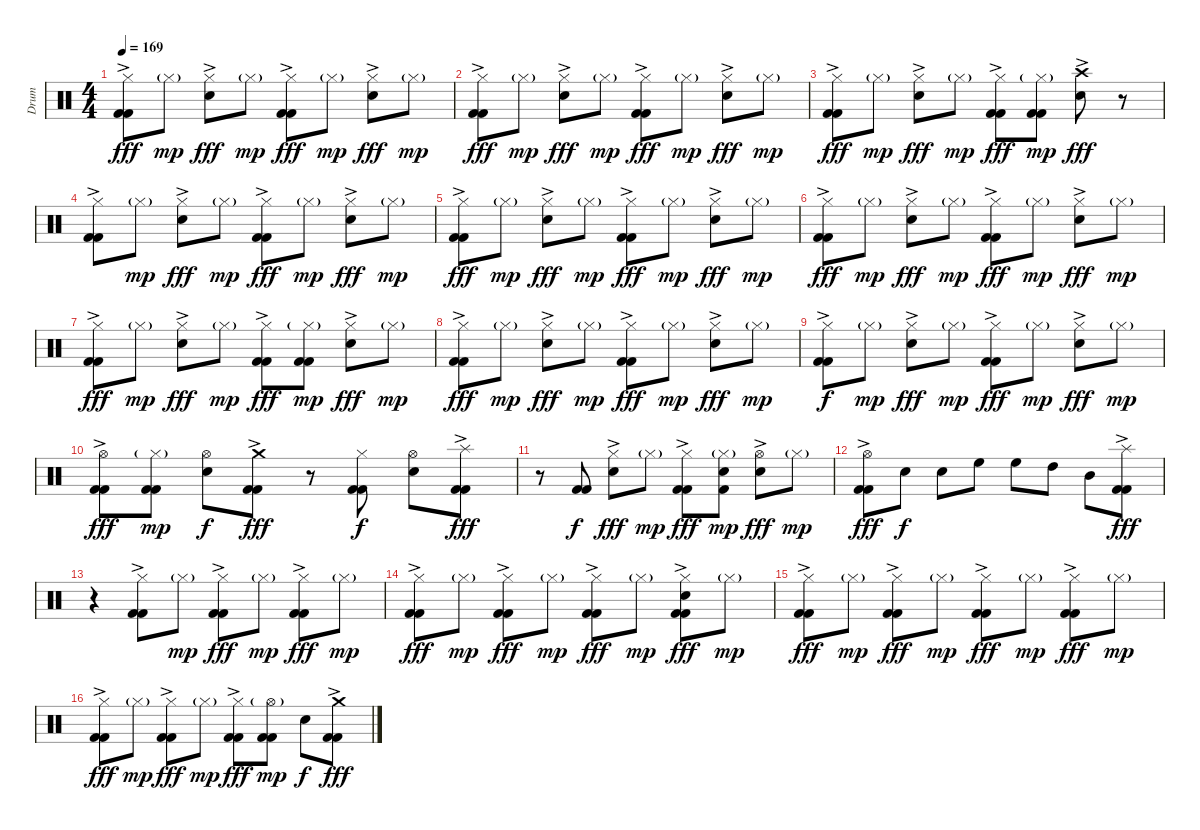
\track ("Drum" "Drum") {instrument percussion}
\staff {score}
\articulation defaults
\ts (4 4)
\tempo 169
\clef neutral
\ks c
("Hi-Hat (closed)"{ac} "Kick (hit) 2" "Kick (hit) 2").8{dy fff} "Hi-Hat (closed)"{g}.8{dy mp} ("Hi-Hat (closed)"{ac} "Electric Snare (hit)").8{dy fff} "Hi-Hat (closed)"{g}.8{dy mp} ("Hi-Hat (closed)"{ac} "Kick (hit) 2" "Kick (hit) 2").8{dy fff} "Hi-Hat (closed)"{g}.8{dy mp} ("Hi-Hat (closed)"{ac} "Electric Snare (hit)").8{dy fff} "Hi-Hat (closed)"{g}.8{dy mp} |
("Hi-Hat (closed)"{ac} "Kick (hit) 2" "Kick (hit) 2").8{dy fff} "Hi-Hat (closed)"{g}.8{dy mp} ("Hi-Hat (closed)"{ac} "Electric Snare (hit)").8{dy fff} "Hi-Hat (closed)"{g}.8{dy mp} ("Hi-Hat (closed)"{ac} "Kick (hit) 2" "Kick (hit) 2").8{dy fff} "Hi-Hat (closed)"{g}.8{dy mp} ("Hi-Hat (closed)"{ac} "Electric Snare (hit)").8{dy fff} "Hi-Hat (closed)"{g}.8{dy mp} |
("Hi-Hat (closed)"{ac} "Kick (hit) 2" "Kick (hit) 2").8{dy fff} "Hi-Hat (closed)"{g}.8{dy mp} ("Hi-Hat (closed)"{ac} "Electric Snare (hit)").8{dy fff} "Hi-Hat (closed)"{g}.8{dy mp} ("Hi-Hat (closed)"{ac} "Kick (hit) 2" "Kick (hit) 2").8{dy fff} ("Hi-Hat (closed)"{g} "Kick (hit) 2" "Kick (hit) 2").8{dy mp} ("Crash high (hit)"{ac} "Electric Snare (hit)").8{dy fff} r.8 |
("Hi-Hat (closed)"{ac} "Kick (hit) 2" "Kick (hit) 2").8 "Hi-Hat (closed)"{g}.8{dy mp} ("Hi-Hat (closed)"{ac} "Electric Snare (hit)").8{dy fff} "Hi-Hat (closed)"{g}.8{dy mp} ("Hi-Hat (closed)"{ac} "Kick (hit) 2" "Kick (hit) 2").8{dy fff} "Hi-Hat (closed)"{g}.8{dy mp} ("Hi-Hat (closed)"{ac} "Electric Snare (hit)").8{dy fff} "Hi-Hat (closed)"{g}.8{dy mp} |
("Hi-Hat (closed)"{ac} "Kick (hit) 2" "Kick (hit) 2").8{dy fff} "Hi-Hat (closed)"{g}.8{dy mp} ("Hi-Hat (closed)"{ac} "Electric Snare (hit)").8{dy fff} "Hi-Hat (closed)"{g}.8{dy mp} ("Hi-Hat (closed)"{ac} "Kick (hit) 2" "Kick (hit) 2").8{dy fff} "Hi-Hat (closed)"{g}.8{dy mp} ("Hi-Hat (closed)"{ac} "Electric Snare (hit)").8{dy fff} "Hi-Hat (closed)"{g}.8{dy mp} |
("Hi-Hat (closed)"{ac} "Kick (hit) 2" "Kick (hit) 2").8{dy fff} "Hi-Hat (closed)"{g}.8{dy mp} ("Hi-Hat (closed)"{ac} "Electric Snare (hit)").8{dy fff} "Hi-Hat (closed)"{g}.8{dy mp} ("Hi-Hat (closed)"{ac} "Kick (hit) 2" "Kick (hit) 2").8{dy fff} "Hi-Hat (closed)"{g}.8{dy mp} ("Hi-Hat (closed)"{ac} "Electric Snare (hit)").8{dy fff} "Hi-Hat (closed)"{g}.8{dy mp} |
("Hi-Hat (closed)"{ac} "Kick (hit) 2" "Kick (hit) 2").8{dy fff} "Hi-Hat (closed)"{g}.8{dy mp} ("Hi-Hat (closed)"{ac} "Electric Snare (hit)").8{dy fff} "Hi-Hat (closed)"{g}.8{dy mp} ("Hi-Hat (closed)"{ac} "Kick (hit) 2" "Kick (hit) 2").8{dy fff} ("Hi-Hat (closed)"{g} "Kick (hit) 2" "Kick (hit) 2").8{dy mp} ("Hi-Hat (closed)"{ac} "Electric Snare (hit)").8{dy fff} "Hi-Hat (closed)"{g}.8{dy mp} |
("Hi-Hat (closed)"{ac} "Kick (hit) 2" "Kick (hit) 2").8{dy fff} "Hi-Hat (closed)"{g}.8{dy mp} ("Hi-Hat (closed)"{ac} "Electric Snare (hit)").8{dy fff} "Hi-Hat (closed)"{g}.8{dy mp} ("Hi-Hat (closed)"{ac} "Kick (hit) 2" "Kick (hit) 2").8{dy fff} "Hi-Hat (closed)"{g}.8{dy mp} ("Hi-Hat (closed)"{ac} "Electric Snare (hit)").8{dy fff} "Hi-Hat (closed)"{g}.8{dy mp} |
("Hi-Hat (closed)"{ac} "Kick (hit) 2" "Kick (hit) 2").8{dy f} "Hi-Hat (closed)"{g}.8{dy mp} ("Hi-Hat (closed)"{ac} "Electric Snare (hit)").8{dy fff} "Hi-Hat (closed)"{g}.8{dy mp} ("Hi-Hat (closed)"{ac} "Kick (hit) 2" "Kick (hit) 2").8{dy fff} "Hi-Hat (closed)"{g}.8{dy mp} ("Hi-Hat (closed)"{ac} "Electric Snare (hit)").8{dy fff} "Hi-Hat (closed)"{g}.8{dy mp} |
("Hi-Hat (open)"{ac} "Kick (hit) 2" "Kick (hit) 2").8{dy fff} ("Hi-Hat (closed)"{g} "Kick (hit) 2" "Kick (hit) 2").8{dy mp} ("Hi-Hat (open)" "Electric Snare (hit)").8{dy f} ("Crash medium (hit)"{ac} "Kick (hit) 2" "Kick (hit) 2").8{dy fff} r.8 ("Hi-Hat (closed)" "Kick (hit) 2" "Kick (hit) 2").8{dy f} ("Hi-Hat (open)" "Electric Snare (hit)").8 ("Splash (hit)"{ac} "Kick (hit) 2" "Kick (hit) 2").8{dy fff} |
r.8 ("Kick (hit) 2" "Kick (hit) 2").8{dy f} ("Hi-Hat (closed)"{ac} "Electric Snare (hit)").8{dy fff} "Hi-Hat (closed)"{g}.8{dy mp} ("Hi-Hat (closed)"{ac} "Kick (hit) 2" "Kick (hit) 2").8{dy fff} ("Hi-Hat (closed)"{g} "Snare (hit)" "Kick (hit) 2").8{dy mp} ("Hi-Hat (open)"{ac} "Electric Snare (hit)").8{dy fff} "Hi-Hat (closed)"{g}.8{dy mp} |
("Hi-Hat (open)"{ac} "Kick (hit) 2" "Kick (hit) 2").8{dy fff} "Electric Snare (hit)".8{dy f} "Electric Snare (hit)".8 "High Floor Tom (hit)".8 "High Floor Tom (hit)".8 "High Tom (hit)".8 "Mid Tom (hit)".8 ("Splash (hit)"{ac} "Kick (hit) 2" "Kick (hit) 2").8{dy fff} |
r.4 ("Hi-Hat (closed)"{ac} "Kick (hit) 2" "Kick (hit) 2").8 "Hi-Hat (closed)"{g}.8{dy mp} ("Hi-Hat (closed)"{ac} "Kick (hit) 2" "Kick (hit) 2").8{dy fff} "Hi-Hat (closed)"{g}.8{dy mp} ("Hi-Hat (closed)"{ac} "Kick (hit) 2" "Kick (hit) 2").8{dy fff} "Hi-Hat (closed)"{g}.8{dy mp} |
("Hi-Hat (closed)"{ac} "Kick (hit) 2" "Kick (hit) 2").8{dy fff} "Hi-Hat (closed)"{g}.8{dy mp} ("Hi-Hat (closed)"{ac} "Kick (hit) 2" "Kick (hit) 2").8{dy fff} "Hi-Hat (closed)"{g}.8{dy mp} ("Hi-Hat (closed)"{ac} "Kick (hit) 2" "Kick (hit) 2").8{dy fff} "Hi-Hat (closed)"{g}.8{dy mp} ("Hi-Hat (closed)"{ac} "Electric Snare (hit)" "Kick (hit) 2" "Kick (hit) 2").8{dy fff} "Hi-Hat (closed)"{g}.8{dy mp} |
("Hi-Hat (closed)"{ac} "Kick (hit) 2" "Kick (hit) 2").8{dy fff} "Hi-Hat (closed)"{g}.8{dy mp} ("Hi-Hat (closed)"{ac} "Kick (hit) 2" "Kick (hit) 2").8{dy fff} "Hi-Hat (closed)"{g}.8{dy mp} ("Hi-Hat (closed)"{ac} "Kick (hit) 2" "Kick (hit) 2").8{dy fff} "Hi-Hat (closed)"{g}.8{dy mp} ("Hi-Hat (closed)"{ac} "Kick (hit) 2" "Kick (hit) 2").8{dy fff} "Hi-Hat (closed)"{g}.8{dy mp} |
("Hi-Hat (closed)"{ac} "Kick (hit) 2" "Kick (hit) 2").8{dy fff} "Hi-Hat (closed)"{g}.8{dy mp} ("Hi-Hat (closed)"{ac} "Kick (hit) 2" "Kick (hit) 2").8{dy fff} "Hi-Hat (closed)"{g}.8{dy mp} ("Hi-Hat (closed)"{ac} "Kick (hit) 2" "Kick (hit) 2").8{dy fff} ("Hi-Hat (open)"{g} "Kick (hit) 2" "Kick (hit) 2").8{dy mp} "Electric Snare (hit)".8{dy f} ("Crash medium (hit)"{ac} "Kick (hit) 2" "Kick (hit) 2").8{dy fff}
